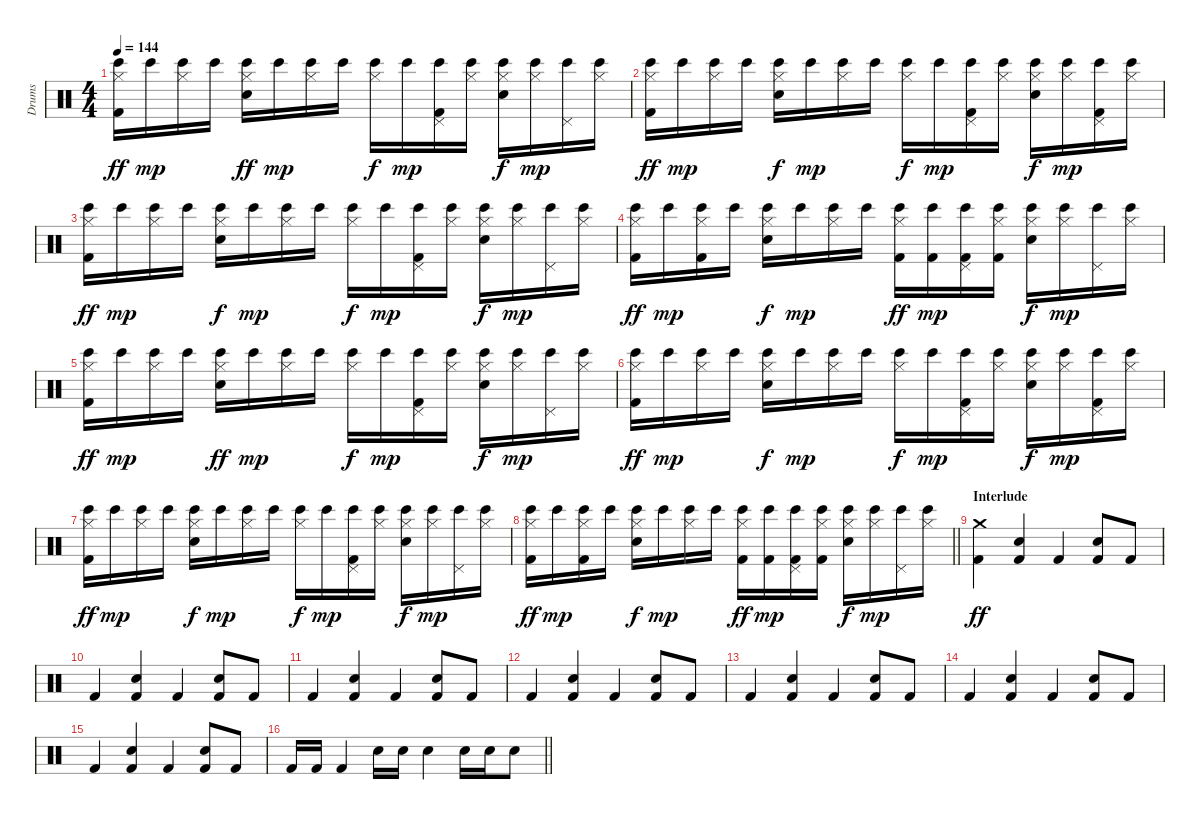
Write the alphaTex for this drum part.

\track ("Drums" "Drums") {instrument percussion}
\staff {score}
\articulation defaults
\ts (4 4)
\tempo 144
\clef neutral
\ks c
("Kick (hit) 2" "Hi-Hat (closed)" "Bongo High (hit)").16{dy ff} "Bongo High (hit)".16{dy mp} ("Hi-Hat (closed)" "Bongo High (hit)").16 "Bongo High (hit)".16 ("Snare (hit) 2" "Hi-Hat (closed)" "Bongo High (hit)").16{dy ff} "Bongo High (hit)".16{dy mp} ("Hi-Hat (closed)" "Bongo High (hit)").16 "Bongo High (hit)".16 ("Hi-Hat (closed)" "Bongo High (hit)").16{dy f} "Bongo High (hit)".16{dy mp} ("Kick (hit) 2" "Pedal Hi-Hat (hit)" "Bongo High (hit)").16 ("Hi-Hat (closed)" "Bongo High (hit)").16 ("Snare (hit) 2" "Hi-Hat (closed)" "Bongo High (hit)").16{dy f} ("Hi-Hat (closed)" "Bongo High (hit)").16{dy mp} ("Pedal Hi-Hat (hit)" "Bongo High (hit)").16 ("Hi-Hat (closed)" "Bongo High (hit)").16 |
("Kick (hit) 2" "Hi-Hat (closed)" "Bongo High (hit)").16{dy ff} "Bongo High (hit)".16{dy mp} ("Hi-Hat (closed)" "Bongo High (hit)").16 "Bongo High (hit)".16 ("Snare (hit) 2" "Hi-Hat (closed)" "Bongo High (hit)").16{dy f} "Bongo High (hit)".16{dy mp} ("Hi-Hat (closed)" "Bongo High (hit)").16 "Bongo High (hit)".16 ("Hi-Hat (closed)" "Bongo High (hit)").16{dy f} "Bongo High (hit)".16{dy mp} ("Kick (hit) 2" "Pedal Hi-Hat (hit)" "Bongo High (hit)").16 ("Hi-Hat (closed)" "Bongo High (hit)").16 ("Snare (hit) 2" "Hi-Hat (closed)" "Bongo High (hit)").16{dy f} ("Hi-Hat (closed)" "Bongo High (hit)").16{dy mp} ("Kick (hit) 2" "Pedal Hi-Hat (hit)" "Bongo High (hit)").16 ("Hi-Hat (closed)" "Bongo High (hit)").16 |
("Kick (hit) 2" "Hi-Hat (closed)" "Bongo High (hit)").16{dy ff} "Bongo High (hit)".16{dy mp} ("Hi-Hat (closed)" "Bongo High (hit)").16 "Bongo High (hit)".16 ("Snare (hit) 2" "Hi-Hat (closed)" "Bongo High (hit)").16{dy f} "Bongo High (hit)".16{dy mp} ("Hi-Hat (closed)" "Bongo High (hit)").16 "Bongo High (hit)".16 ("Hi-Hat (closed)" "Bongo High (hit)").16{dy f} "Bongo High (hit)".16{dy mp} ("Kick (hit) 2" "Pedal Hi-Hat (hit)" "Bongo High (hit)").16 ("Hi-Hat (closed)" "Bongo High (hit)").16 ("Snare (hit) 2" "Hi-Hat (closed)" "Bongo High (hit)").16{dy f} ("Hi-Hat (closed)" "Bongo High (hit)").16{dy mp} ("Pedal Hi-Hat (hit)" "Bongo High (hit)").16 ("Hi-Hat (closed)" "Bongo High (hit)").16 |
("Kick (hit) 2" "Hi-Hat (closed)" "Bongo High (hit)").16{dy ff} "Bongo High (hit)".16{dy mp} ("Kick (hit) 2" "Hi-Hat (closed)" "Bongo High (hit)").16 "Bongo High (hit)".16 ("Snare (hit) 2" "Hi-Hat (closed)" "Bongo High (hit)").16{dy f} "Bongo High (hit)".16{dy mp} ("Hi-Hat (closed)" "Bongo High (hit)").16 "Bongo High (hit)".16 ("Kick (hit) 2" "Hi-Hat (closed)" "Bongo High (hit)").16{dy ff} ("Kick (hit) 2" "Bongo High (hit)").16{dy mp} ("Kick (hit) 2" "Pedal Hi-Hat (hit)" "Bongo High (hit)").16 ("Kick (hit) 2" "Hi-Hat (closed)" "Bongo High (hit)").16 ("Snare (hit) 2" "Hi-Hat (closed)" "Bongo High (hit)").16{dy f} ("Hi-Hat (closed)" "Bongo High (hit)").16{dy mp} ("Pedal Hi-Hat (hit)" "Bongo High (hit)").16 ("Hi-Hat (closed)" "Bongo High (hit)").16 |
("Kick (hit) 2" "Hi-Hat (closed)" "Bongo High (hit)").16{dy ff} "Bongo High (hit)".16{dy mp} ("Hi-Hat (closed)" "Bongo High (hit)").16 "Bongo High (hit)".16 ("Snare (hit) 2" "Hi-Hat (closed)" "Bongo High (hit)").16{dy ff} "Bongo High (hit)".16{dy mp} ("Hi-Hat (closed)" "Bongo High (hit)").16 "Bongo High (hit)".16 ("Hi-Hat (closed)" "Bongo High (hit)").16{dy f} "Bongo High (hit)".16{dy mp} ("Kick (hit) 2" "Pedal Hi-Hat (hit)" "Bongo High (hit)").16 ("Hi-Hat (closed)" "Bongo High (hit)").16 ("Snare (hit) 2" "Hi-Hat (closed)" "Bongo High (hit)").16{dy f} ("Hi-Hat (closed)" "Bongo High (hit)").16{dy mp} ("Pedal Hi-Hat (hit)" "Bongo High (hit)").16 ("Hi-Hat (closed)" "Bongo High (hit)").16 |
("Kick (hit) 2" "Hi-Hat (closed)" "Bongo High (hit)").16{dy ff} "Bongo High (hit)".16{dy mp} ("Hi-Hat (closed)" "Bongo High (hit)").16 "Bongo High (hit)".16 ("Snare (hit) 2" "Hi-Hat (closed)" "Bongo High (hit)").16{dy f} "Bongo High (hit)".16{dy mp} ("Hi-Hat (closed)" "Bongo High (hit)").16 "Bongo High (hit)".16 ("Hi-Hat (closed)" "Bongo High (hit)").16{dy f} "Bongo High (hit)".16{dy mp} ("Kick (hit) 2" "Pedal Hi-Hat (hit)" "Bongo High (hit)").16 ("Hi-Hat (closed)" "Bongo High (hit)").16 ("Snare (hit) 2" "Hi-Hat (closed)" "Bongo High (hit)").16{dy f} ("Hi-Hat (closed)" "Bongo High (hit)").16{dy mp} ("Kick (hit) 2" "Pedal Hi-Hat (hit)" "Bongo High (hit)").16 ("Hi-Hat (closed)" "Bongo High (hit)").16 |
("Kick (hit) 2" "Hi-Hat (closed)" "Bongo High (hit)").16{dy ff} "Bongo High (hit)".16{dy mp} ("Hi-Hat (closed)" "Bongo High (hit)").16 "Bongo High (hit)".16 ("Snare (hit) 2" "Hi-Hat (closed)" "Bongo High (hit)").16{dy f} "Bongo High (hit)".16{dy mp} ("Hi-Hat (closed)" "Bongo High (hit)").16 "Bongo High (hit)".16 ("Hi-Hat (closed)" "Bongo High (hit)").16{dy f} "Bongo High (hit)".16{dy mp} ("Kick (hit) 2" "Pedal Hi-Hat (hit)" "Bongo High (hit)").16 ("Hi-Hat (closed)" "Bongo High (hit)").16 ("Snare (hit) 2" "Hi-Hat (closed)" "Bongo High (hit)").16{dy f} ("Hi-Hat (closed)" "Bongo High (hit)").16{dy mp} ("Pedal Hi-Hat (hit)" "Bongo High (hit)").16 ("Hi-Hat (closed)" "Bongo High (hit)").16 |
\barLineRight lightlight
("Kick (hit) 2" "Hi-Hat (closed)" "Bongo High (hit)").16{dy ff} "Bongo High (hit)".16{dy mp} ("Kick (hit) 2" "Hi-Hat (closed)" "Bongo High (hit)").16 "Bongo High (hit)".16 ("Snare (hit) 2" "Hi-Hat (closed)" "Bongo High (hit)").16{dy f} "Bongo High (hit)".16{dy mp} ("Hi-Hat (closed)" "Bongo High (hit)").16 "Bongo High (hit)".16 ("Kick (hit) 2" "Hi-Hat (closed)" "Bongo High (hit)").16{dy ff} ("Kick (hit) 2" "Bongo High (hit)").16{dy mp} ("Kick (hit) 2" "Pedal Hi-Hat (hit)" "Bongo High (hit)").16 ("Kick (hit) 2" "Hi-Hat (closed)" "Bongo High (hit)").16 ("Snare (hit) 2" "Hi-Hat (closed)" "Bongo High (hit)").16{dy f} ("Hi-Hat (closed)" "Bongo High (hit)").16{dy mp} ("Pedal Hi-Hat (hit)" "Bongo High (hit)").16 ("Hi-Hat (closed)" "Bongo High (hit)").16 |
\section ("" "Interlude")
("Kick (hit) 2" "Crash medium (hit)").4{dy ff} ("Kick (hit) 2" "Snare (hit) 2").4 "Kick (hit) 2".4 ("Kick (hit) 2" "Snare (hit) 2").8 "Kick (hit) 2".8 |
"Kick (hit) 2".4 ("Kick (hit) 2" "Snare (hit) 2").4 "Kick (hit) 2".4 ("Kick (hit) 2" "Snare (hit) 2").8 "Kick (hit) 2".8 |
"Kick (hit) 2".4 ("Kick (hit) 2" "Snare (hit) 2").4 "Kick (hit) 2".4 ("Kick (hit) 2" "Snare (hit) 2").8 "Kick (hit) 2".8 |
"Kick (hit) 2".4 ("Kick (hit) 2" "Snare (hit) 2").4 "Kick (hit) 2".4 ("Kick (hit) 2" "Snare (hit) 2").8 "Kick (hit) 2".8 |
"Kick (hit) 2".4 ("Kick (hit) 2" "Snare (hit) 2").4 "Kick (hit) 2".4 ("Kick (hit) 2" "Snare (hit) 2").8 "Kick (hit) 2".8 |
"Kick (hit) 2".4 ("Kick (hit) 2" "Snare (hit) 2").4 "Kick (hit) 2".4 ("Kick (hit) 2" "Snare (hit) 2").8 "Kick (hit) 2".8 |
"Kick (hit) 2".4 ("Kick (hit) 2" "Snare (hit) 2").4 "Kick (hit) 2".4 ("Kick (hit) 2" "Snare (hit) 2").8 "Kick (hit) 2".8 |
\barLineRight lightlight "Kick (hit) 2".16 "Kick (hit) 2".16 "Kick (hit) 2".4 "Snare (hit) 2".16 "Snare (hit) 2".16 "Snare (hit) 2".4 "Snare (hit) 2".16 "Snare (hit) 2".16 "Snare (hit) 2".8
